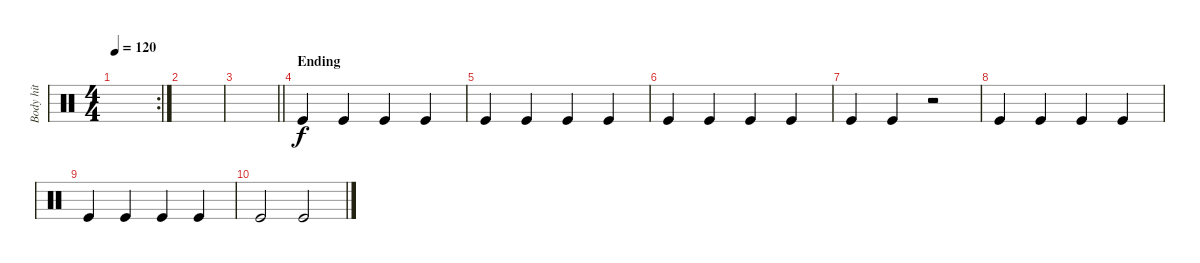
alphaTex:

\track ("Body hit" "Body hit") {instrument percussion}
\staff {score}
\articulation defaults
\rc 2
\ts (4 4)
\tempo 120
\clef neutral
\ks c
|
|
\barLineRight lightlight
|
\section ("" "Ending")
"Kick (hit)".4 "Kick (hit)".4 "Kick (hit)".4 "Kick (hit)".4 |
"Kick (hit)".4 "Kick (hit)".4 "Kick (hit)".4 "Kick (hit)".4 |
"Kick (hit)".4 "Kick (hit)".4 "Kick (hit)".4 "Kick (hit)".4 |
"Kick (hit)".4 "Kick (hit)".4 r.2 |
"Kick (hit)".4 "Kick (hit)".4 "Kick (hit)".4 "Kick (hit)".4 |
"Kick (hit)".4 "Kick (hit)".4 "Kick (hit)".4 "Kick (hit)".4 |
"Kick (hit)".2 "Kick (hit)".2
